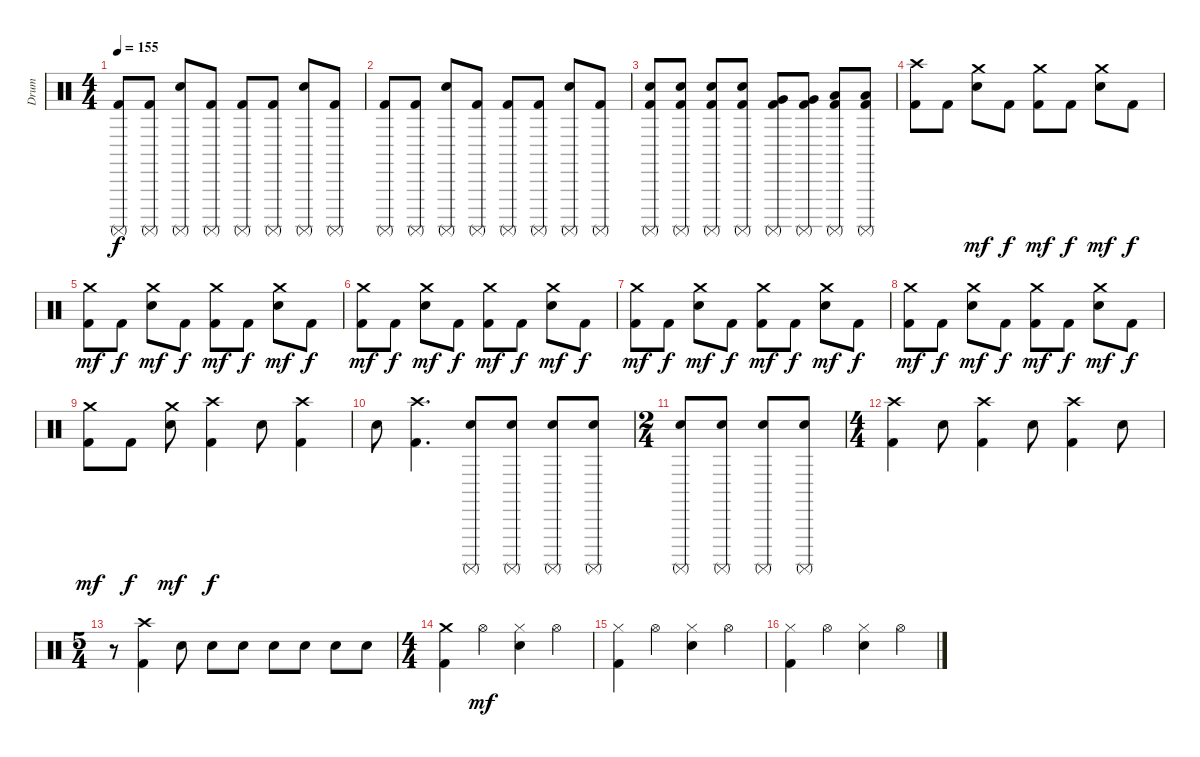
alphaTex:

\track ("Drum" "Drum") {instrument percussion}
\staff {score}
\articulation defaults
\ts (4 4)
\tempo 155
\clef neutral
\ks c
("Surdo (mute)" "Kick (hit) 2").8{dy f} ("Surdo (mute)" "Kick (hit) 2").8 ("Surdo (mute)" "Snare (hit) 2").8 ("Surdo (mute)" "Kick (hit) 2").8 ("Surdo (mute)" "Kick (hit) 2").8 ("Surdo (mute)" "Kick (hit) 2").8 ("Surdo (mute)" "Snare (hit) 2").8 ("Surdo (mute)" "Kick (hit) 2").8 |
("Surdo (mute)" "Kick (hit) 2").8 ("Surdo (mute)" "Kick (hit) 2").8 ("Surdo (mute)" "Snare (hit) 2").8 ("Surdo (mute)" "Kick (hit) 2").8 ("Surdo (mute)" "Kick (hit) 2").8 ("Surdo (mute)" "Kick (hit) 2").8 ("Surdo (mute)" "Snare (hit) 2").8 ("Surdo (mute)" "Kick (hit) 2").8 |
("Surdo (mute)" "Snare (hit) 2" "Kick (hit) 2").8 ("Surdo (mute)" "Snare (hit) 2" "Kick (hit) 2").8 ("Surdo (mute)" "Snare (hit) 2" "Kick (hit) 2").8 ("Surdo (mute)" "Snare (hit) 2" "Kick (hit) 2").8 ("Surdo (mute)" "Very Low Tom (hit)" "Kick (hit) 2").8 ("Surdo (mute)" "Very Low Tom (hit)" "Kick (hit) 2").8 ("Surdo (mute)" "Low Floor Tom (hit)" "Kick (hit) 2").8 ("Surdo (mute)" "Low Floor Tom (hit)" "Kick (hit) 2").8 |
("Crash high (hit)" "Kick (hit) 2").8 "Kick (hit) 2".8 ("Crash medium (hit)" "Snare (hit) 2").8{dy mf} "Kick (hit) 2".8{dy f} ("Crash medium (hit)" "Kick (hit) 2").8{dy mf} "Kick (hit) 2".8{dy f} ("Crash medium (hit)" "Snare (hit) 2").8{dy mf} "Kick (hit) 2".8{dy f} |
("Crash medium (hit)" "Kick (hit) 2").8{dy mf} "Kick (hit) 2".8{dy f} ("Crash medium (hit)" "Snare (hit) 2").8{dy mf} "Kick (hit) 2".8{dy f} ("Crash medium (hit)" "Kick (hit) 2").8{dy mf} "Kick (hit) 2".8{dy f} ("Crash medium (hit)" "Snare (hit) 2").8{dy mf} "Kick (hit) 2".8{dy f} |
("Crash medium (hit)" "Kick (hit) 2").8{dy mf} "Kick (hit) 2".8{dy f} ("Crash medium (hit)" "Snare (hit) 2").8{dy mf} "Kick (hit) 2".8{dy f} ("Crash medium (hit)" "Kick (hit) 2").8{dy mf} "Kick (hit) 2".8{dy f} ("Crash medium (hit)" "Snare (hit) 2").8{dy mf} "Kick (hit) 2".8{dy f} |
("Crash medium (hit)" "Kick (hit) 2").8{dy mf} "Kick (hit) 2".8{dy f} ("Crash medium (hit)" "Snare (hit) 2").8{dy mf} "Kick (hit) 2".8{dy f} ("Crash medium (hit)" "Kick (hit) 2").8{dy mf} "Kick (hit) 2".8{dy f} ("Crash medium (hit)" "Snare (hit) 2").8{dy mf} "Kick (hit) 2".8{dy f} |
("Crash medium (hit)" "Kick (hit) 2").8{dy mf} "Kick (hit) 2".8{dy f} ("Crash medium (hit)" "Snare (hit) 2").8{dy mf} "Kick (hit) 2".8{dy f} ("Crash medium (hit)" "Kick (hit) 2").8{dy mf} "Kick (hit) 2".8{dy f} ("Crash medium (hit)" "Snare (hit) 2").8{dy mf} "Kick (hit) 2".8{dy f} |
("Crash medium (hit)" "Kick (hit) 2").8{dy mf} "Kick (hit) 2".8{dy f} ("Crash medium (hit)" "Snare (hit) 2").8{dy mf} ("Crash high (hit)" "Kick (hit) 2").4{dy f} "Snare (hit) 2".8 ("Crash high (hit)" "Kick (hit) 2").4 |
"Snare (hit) 2".8 ("Crash high (hit)" "Kick (hit) 2").4{d} ("Surdo (mute)" "Snare (hit) 2").8 ("Surdo (mute)" "Snare (hit) 2").8 ("Surdo (mute)" "Snare (hit) 2").8 ("Surdo (mute)" "Snare (hit) 2").8 |
\ts (2 4)
("Surdo (mute)" "Snare (hit) 2").8 ("Surdo (mute)" "Snare (hit) 2").8 ("Surdo (mute)" "Snare (hit) 2").8 ("Surdo (mute)" "Snare (hit) 2").8 |
\ts (4 4)
("Crash high (hit)" "Kick (hit) 2").4 "Snare (hit) 2".8 ("Crash high (hit)" "Kick (hit) 2").4 "Snare (hit) 2".8 ("Crash high (hit)" "Kick (hit) 2").4 "Snare (hit) 2".8 |
\ts (5 4)
r.8 ("Crash high (hit)" "Kick (hit) 2").4 "Snare (hit) 2".8 "Snare (hit) 2".8 "Snare (hit) 2".8 "Snare (hit) 2".8 "Snare (hit) 2".8 "Snare (hit) 2".8 "Snare (hit) 2".8 |
\ts (4 4)
("Crash medium (hit)" "Kick (hit) 2").4 "Hi-Hat (open)".4{dy mf} ("Hi-Hat (closed)" "Snare (hit) 2").4 "Hi-Hat (open)".4 |
("Hi-Hat (closed)" "Kick (hit) 2").4 "Hi-Hat (open)".4 ("Hi-Hat (closed)" "Snare (hit) 2").4 "Hi-Hat (open)".4 |
("Hi-Hat (closed)" "Kick (hit) 2").4 "Hi-Hat (open)".4 ("Hi-Hat (closed)" "Snare (hit) 2").4 "Hi-Hat (open)".4
